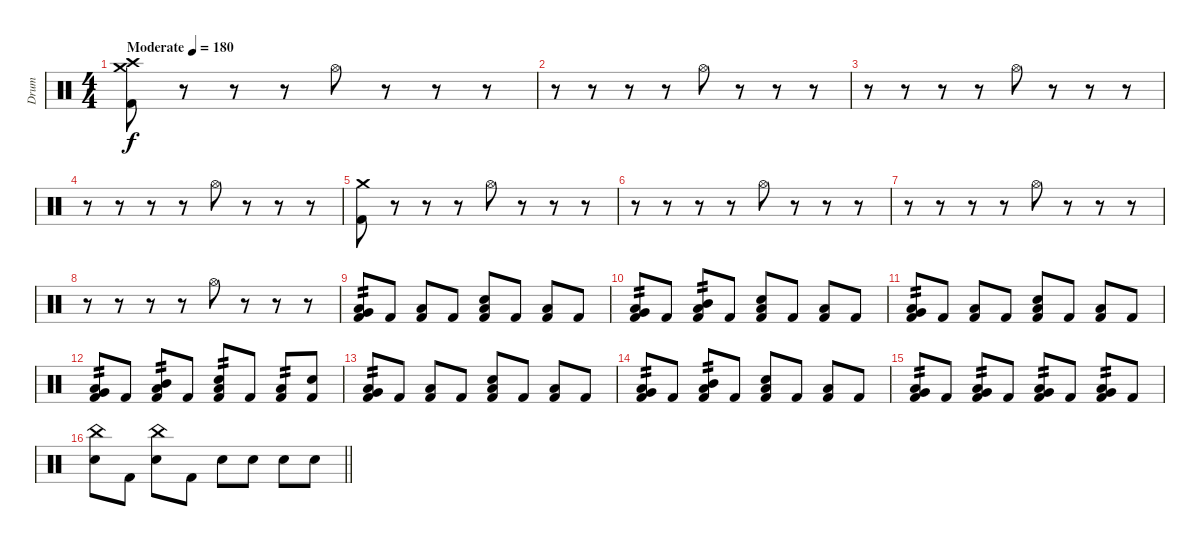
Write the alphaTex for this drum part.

\track ("Drum" "Drum") {instrument percussion}
\staff {score}
\articulation defaults
\ts (4 4)
\tempo (180 "Moderate")
\clef neutral
\ks c
("Crash medium (hit)" "Crash high (hit)" "Kick (hit) 2").8{dy f} r.8 r.8 r.8 "Hi-Hat (open)".8 r.8 r.8 r.8 |
r.8 r.8 r.8 r.8 "Hi-Hat (open)".8 r.8 r.8 r.8 |
r.8 r.8 r.8 r.8 "Hi-Hat (open)".8 r.8 r.8 r.8 |
r.8 r.8 r.8 r.8 "Hi-Hat (open)".8 r.8 r.8 r.8 |
("Crash medium (hit)" "Kick (hit) 2").8 r.8 r.8 r.8 "Hi-Hat (open)".8 r.8 r.8 r.8 |
r.8 r.8 r.8 r.8 "Hi-Hat (open)".8 r.8 r.8 r.8 |
r.8 r.8 r.8 r.8 "Hi-Hat (open)".8 r.8 r.8 r.8 |
r.8 r.8 r.8 r.8 "Hi-Hat (open)".8 r.8 r.8 r.8 |
("Low Floor Tom (hit)" "Very Low Tom (hit)" "Kick (hit) 2").8{tp 2} "Kick (hit) 2".8 ("Low Floor Tom (hit)" "Kick (hit) 2").8 "Kick (hit) 2".8 ("Low Floor Tom (hit)" "Snare (hit) 2" "Kick (hit) 2").8 "Kick (hit) 2".8 ("Low Floor Tom (hit)" "Kick (hit) 2").8 "Kick (hit) 2".8 |
("Low Floor Tom (hit)" "Very Low Tom (hit)" "Kick (hit) 2").8{tp 2} "Kick (hit) 2".8 ("Mid Tom (hit)" "Low Tom (hit)" "Kick (hit) 2").8{tp 2} "Kick (hit) 2".8 ("Low Floor Tom (hit)" "Snare (hit) 2" "Kick (hit) 2").8 "Kick (hit) 2".8 ("Low Floor Tom (hit)" "Kick (hit) 2").8 "Kick (hit) 2".8 |
("Low Floor Tom (hit)" "Very Low Tom (hit)" "Kick (hit) 2").8{tp 2} "Kick (hit) 2".8 ("Low Floor Tom (hit)" "Kick (hit) 2").8 "Kick (hit) 2".8 ("Low Floor Tom (hit)" "Snare (hit) 2" "Kick (hit) 2").8 "Kick (hit) 2".8 ("Low Floor Tom (hit)" "Kick (hit) 2").8 "Kick (hit) 2".8 |
("Low Floor Tom (hit)" "Very Low Tom (hit)" "Kick (hit) 2").8{tp 2} "Kick (hit) 2".8 ("Mid Tom (hit)" "Low Tom (hit)" "Kick (hit) 2").8{tp 2} "Kick (hit) 2".8 ("Low Floor Tom (hit)" "Snare (hit) 2" "Kick (hit) 2").8{tp 2} "Kick (hit) 2".8 ("Low Floor Tom (hit)" "Kick (hit) 2").8{tp 2} ("Snare (hit) 2" "Kick (hit) 2").8 |
("Low Floor Tom (hit)" "Very Low Tom (hit)" "Kick (hit) 2").8{tp 2} "Kick (hit) 2".8 ("Low Floor Tom (hit)" "Kick (hit) 2").8 "Kick (hit) 2".8 ("Low Floor Tom (hit)" "Snare (hit) 2" "Kick (hit) 2").8 "Kick (hit) 2".8 ("Low Floor Tom (hit)" "Kick (hit) 2").8 "Kick (hit) 2".8 |
("Low Floor Tom (hit)" "Very Low Tom (hit)" "Kick (hit) 2").8{tp 2} "Kick (hit) 2".8 ("Mid Tom (hit)" "Low Tom (hit)" "Kick (hit) 2").8{tp 2} "Kick (hit) 2".8 ("Low Floor Tom (hit)" "Snare (hit) 2" "Kick (hit) 2").8 "Kick (hit) 2".8 ("Low Floor Tom (hit)" "Kick (hit) 2").8 "Kick (hit) 2".8 |
("Very Low Tom (hit)" "Low Floor Tom (hit)" "Kick (hit) 2").8{tp 2} "Kick (hit) 2".8 ("Very Low Tom (hit)" "Low Floor Tom (hit)" "Kick (hit) 2").8{tp 2} "Kick (hit) 2".8 ("Very Low Tom (hit)" "Low Floor Tom (hit)" "Kick (hit) 2").8{tp 2} "Kick (hit) 2".8 ("Very Low Tom (hit)" "Low Floor Tom (hit)" "Kick (hit) 2").8{tp 2} "Kick (hit) 2".8 |
\barLineRight lightlight
("China (hit)" "Snare (hit) 2").8 "Kick (hit) 2".8 ("China (hit)" "Snare (hit) 2").8 "Kick (hit) 2".8 "Snare (hit) 2".8 "Snare (hit) 2".8 "Snare (hit) 2".8 "Snare (hit) 2".8
